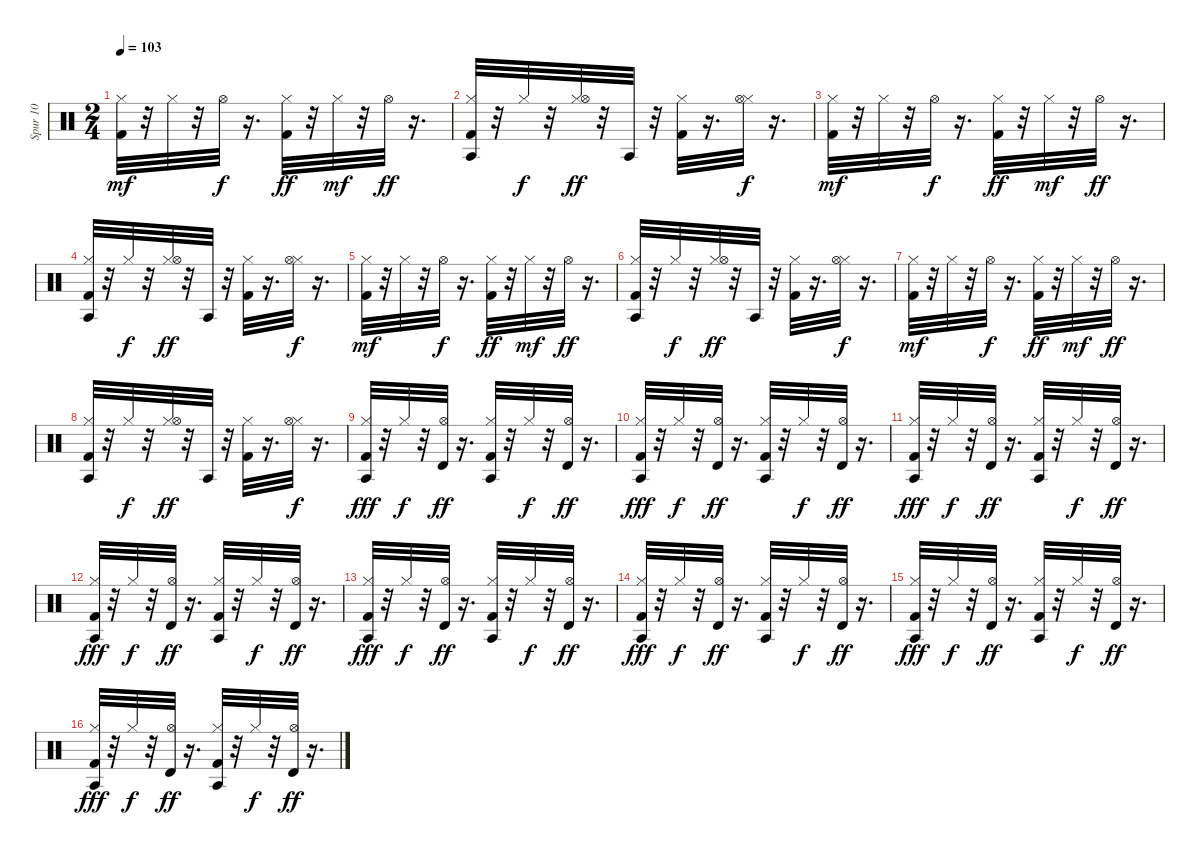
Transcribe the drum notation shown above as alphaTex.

\track ("Spur 10" "Spur 10") {instrument percussion}
\staff {score}
\articulation defaults
\ts (2 4)
\tempo 103
\clef neutral
\ks c
("Kick (hit) 2" "Hi-Hat (closed)").32{dy mf} r.32 "Hi-Hat (closed)".32 r.32 "Hi-Hat (open)".32{dy f} r.16{d} ("Kick (hit) 2" "Hi-Hat (closed)").32{dy ff} r.32 "Hi-Hat (closed)".32{dy mf} r.32 "Hi-Hat (open)".32{dy ff} r.16{d} |
("Kick (hit) 2" "Hi-Hat (closed)" "Agogo tow (hit)").32 r.32 "Hi-Hat (closed)".32{dy f} r.32 ("Hi-Hat (closed)" "Hi-Hat (open)").32{dy ff} r.32 "Agogo tow (hit)".32 r.32 ("Kick (hit) 2" "Hi-Hat (closed)").32 r.16{d} ("Hi-Hat (closed)" "Hi-Hat (open)").32{dy f} r.16{d} |
("Kick (hit) 2" "Hi-Hat (closed)").32{dy mf} r.32 "Hi-Hat (closed)".32 r.32 "Hi-Hat (open)".32{dy f} r.16{d} ("Kick (hit) 2" "Hi-Hat (closed)").32{dy ff} r.32 "Hi-Hat (closed)".32{dy mf} r.32 "Hi-Hat (open)".32{dy ff} r.16{d} |
("Kick (hit) 2" "Hi-Hat (closed)" "Agogo tow (hit)").32 r.32 "Hi-Hat (closed)".32{dy f} r.32 ("Hi-Hat (closed)" "Hi-Hat (open)").32{dy ff} r.32 "Agogo tow (hit)".32 r.32 ("Kick (hit) 2" "Hi-Hat (closed)").32 r.16{d} ("Hi-Hat (closed)" "Hi-Hat (open)").32{dy f} r.16{d} |
("Kick (hit) 2" "Hi-Hat (closed)").32{dy mf} r.32 "Hi-Hat (closed)".32 r.32 "Hi-Hat (open)".32{dy f} r.16{d} ("Kick (hit) 2" "Hi-Hat (closed)").32{dy ff} r.32 "Hi-Hat (closed)".32{dy mf} r.32 "Hi-Hat (open)".32{dy ff} r.16{d} |
("Kick (hit) 2" "Hi-Hat (closed)" "Agogo tow (hit)").32 r.32 "Hi-Hat (closed)".32{dy f} r.32 ("Hi-Hat (closed)" "Hi-Hat (open)").32{dy ff} r.32 "Agogo tow (hit)".32 r.32 ("Kick (hit) 2" "Hi-Hat (closed)").32 r.16{d} ("Hi-Hat (closed)" "Hi-Hat (open)").32{dy f} r.16{d} |
("Kick (hit) 2" "Hi-Hat (closed)").32{dy mf} r.32 "Hi-Hat (closed)".32 r.32 "Hi-Hat (open)".32{dy f} r.16{d} ("Kick (hit) 2" "Hi-Hat (closed)").32{dy ff} r.32 "Hi-Hat (closed)".32{dy mf} r.32 "Hi-Hat (open)".32{dy ff} r.16{d} |
("Kick (hit) 2" "Hi-Hat (closed)" "Agogo tow (hit)").32 r.32 "Hi-Hat (closed)".32{dy f} r.32 ("Hi-Hat (closed)" "Hi-Hat (open)").32{dy ff} r.32 "Agogo tow (hit)".32 r.32 ("Kick (hit) 2" "Hi-Hat (closed)").32 r.16{d} ("Hi-Hat (closed)" "Hi-Hat (open)").32{dy f} r.16{d} |
("Kick (hit) 2" "Hi-Hat (closed)" "Agogo tow (hit)").32{dy fff} r.32 "Hi-Hat (closed)".32{dy f} r.32 ("Hi-Hat (open)" "Timbale high (hit)").32{dy ff} r.16{d} ("Kick (hit) 2" "Hi-Hat (closed)" "Agogo tow (hit)").32 r.32 "Hi-Hat (closed)".32{dy f} r.32 ("Hi-Hat (open)" "Timbale high (hit)").32{dy ff} r.16{d} |
("Kick (hit) 2" "Hi-Hat (closed)" "Agogo tow (hit)").32{dy fff} r.32 "Hi-Hat (closed)".32{dy f} r.32 ("Hi-Hat (open)" "Timbale high (hit)").32{dy ff} r.16{d} ("Kick (hit) 2" "Hi-Hat (closed)" "Agogo tow (hit)").32 r.32 "Hi-Hat (closed)".32{dy f} r.32 ("Hi-Hat (open)" "Timbale high (hit)").32{dy ff} r.16{d} |
("Kick (hit) 2" "Hi-Hat (closed)" "Agogo tow (hit)").32{dy fff} r.32 "Hi-Hat (closed)".32{dy f} r.32 ("Hi-Hat (open)" "Timbale high (hit)").32{dy ff} r.16{d} ("Kick (hit) 2" "Hi-Hat (closed)" "Agogo tow (hit)").32 r.32 "Hi-Hat (closed)".32{dy f} r.32 ("Hi-Hat (open)" "Timbale high (hit)").32{dy ff} r.16{d} |
("Kick (hit) 2" "Hi-Hat (closed)" "Agogo tow (hit)").32{dy fff} r.32 "Hi-Hat (closed)".32{dy f} r.32 ("Hi-Hat (open)" "Timbale high (hit)").32{dy ff} r.16{d} ("Kick (hit) 2" "Hi-Hat (closed)" "Agogo tow (hit)").32 r.32 "Hi-Hat (closed)".32{dy f} r.32 ("Hi-Hat (open)" "Timbale high (hit)").32{dy ff} r.16{d} |
("Kick (hit) 2" "Hi-Hat (closed)" "Agogo tow (hit)").32{dy fff} r.32 "Hi-Hat (closed)".32{dy f} r.32 ("Hi-Hat (open)" "Timbale high (hit)").32{dy ff} r.16{d} ("Kick (hit) 2" "Hi-Hat (closed)" "Agogo tow (hit)").32 r.32 "Hi-Hat (closed)".32{dy f} r.32 ("Hi-Hat (open)" "Timbale high (hit)").32{dy ff} r.16{d} |
("Kick (hit) 2" "Hi-Hat (closed)" "Agogo tow (hit)").32{dy fff} r.32 "Hi-Hat (closed)".32{dy f} r.32 ("Hi-Hat (open)" "Timbale high (hit)").32{dy ff} r.16{d} ("Kick (hit) 2" "Hi-Hat (closed)" "Agogo tow (hit)").32 r.32 "Hi-Hat (closed)".32{dy f} r.32 ("Hi-Hat (open)" "Timbale high (hit)").32{dy ff} r.16{d} |
("Kick (hit) 2" "Hi-Hat (closed)" "Agogo tow (hit)").32{dy fff} r.32 "Hi-Hat (closed)".32{dy f} r.32 ("Hi-Hat (open)" "Timbale high (hit)").32{dy ff} r.16{d} ("Kick (hit) 2" "Hi-Hat (closed)" "Agogo tow (hit)").32 r.32 "Hi-Hat (closed)".32{dy f} r.32 ("Hi-Hat (open)" "Timbale high (hit)").32{dy ff} r.16{d} |
("Kick (hit) 2" "Hi-Hat (closed)" "Agogo tow (hit)").32{dy fff} r.32 "Hi-Hat (closed)".32{dy f} r.32 ("Hi-Hat (open)" "Timbale high (hit)").32{dy ff} r.16{d} ("Kick (hit) 2" "Hi-Hat (closed)" "Agogo tow (hit)").32 r.32 "Hi-Hat (closed)".32{dy f} r.32 ("Hi-Hat (open)" "Timbale high (hit)").32{dy ff} r.16{d}
